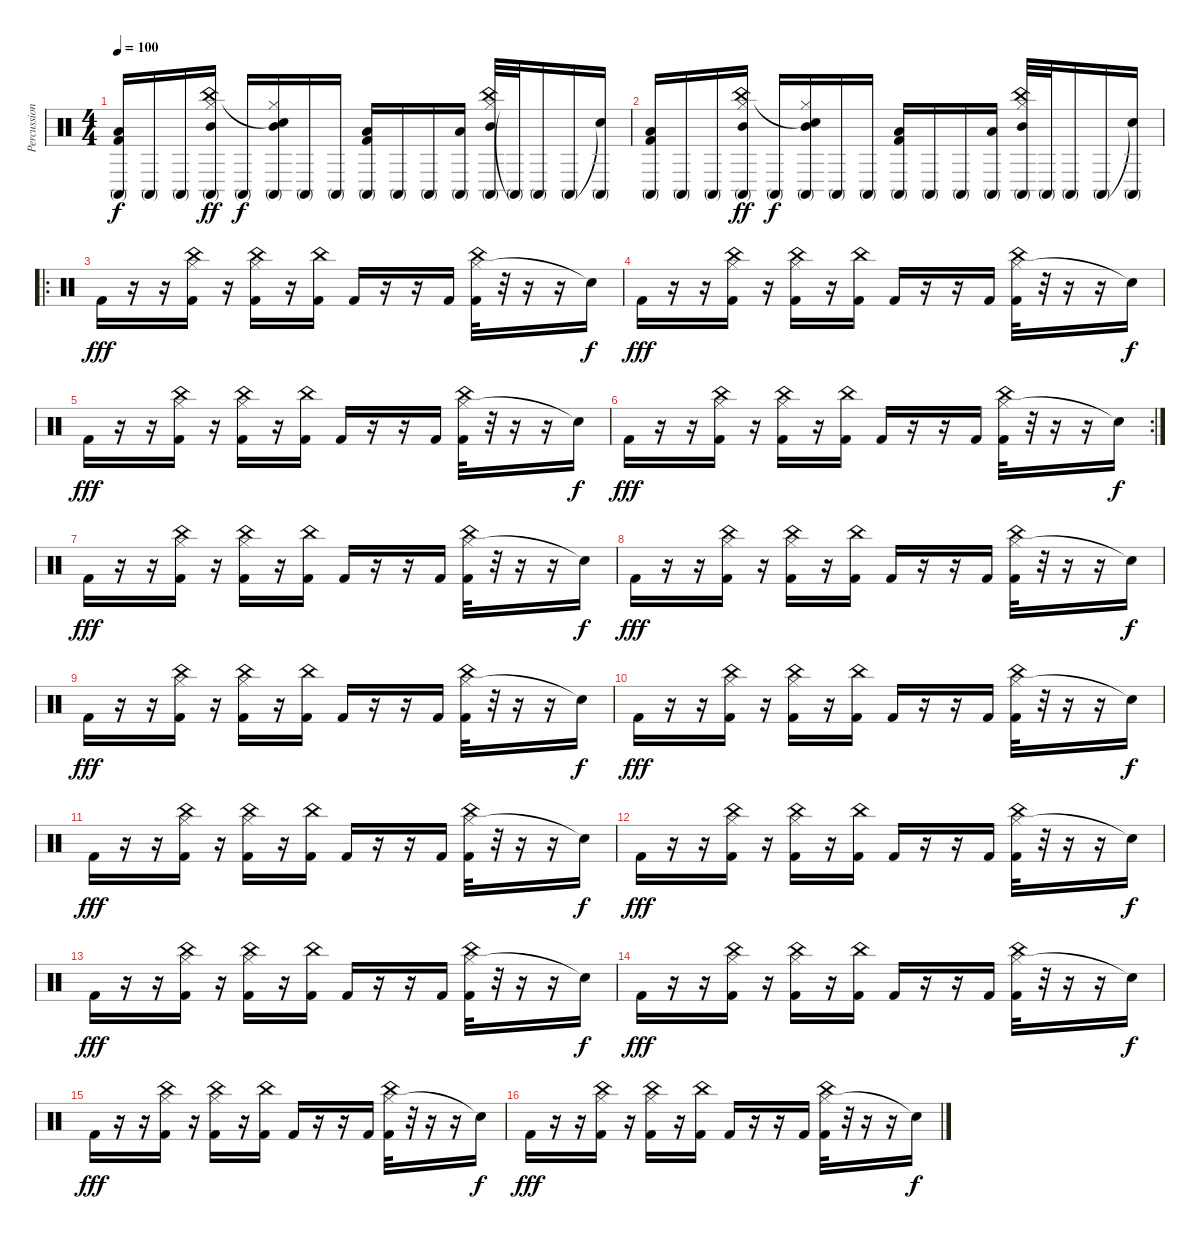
\track ("Percussion" "Percussion") {instrument percussion}
\staff {score}
\articulation defaults
\ts (4 4)
\tempo 100
\clef neutral
\ks c
("Kick (hit) 2" "Low Tom (hit)" "Conga high (mute)").16{dy f} "Conga high (mute)".16 "Conga high (mute)".16 ("Hi-Hat (closed)" "China (hit)" "Mid Tom (hit)" "Conga high (mute)").16{dy ff} "Conga high (mute)".16{dy f} ("Hi-Hat (closed)" "Snare (hit)"{t} "Mid Tom (hit)" "Conga high (mute)").16 "Conga high (mute)".16 "Conga high (mute)".16 ("Kick (hit) 2" "Low Tom (hit)" "Conga high (mute)").16 "Conga high (mute)".16 "Conga high (mute)".16 ("Low Tom (hit)" "Conga high (mute)").16 ("Hi-Hat (closed)" "China (hit)" "Mid Tom (hit)" "Conga high (mute)").32 "Conga high (mute)"{t}.32 "Conga high (mute)".16 "Conga high (mute)".16 ("Snare (hit)"{t} "Conga high (mute)").16 |
("Kick (hit) 2" "Low Tom (hit)" "Conga high (mute)").16 "Conga high (mute)".16 "Conga high (mute)".16 ("Hi-Hat (closed)" "China (hit)" "Mid Tom (hit)" "Conga high (mute)").16{dy ff} "Conga high (mute)".16{dy f} ("Hi-Hat (closed)" "Snare (hit)"{t} "Mid Tom (hit)" "Conga high (mute)").16 "Conga high (mute)".16 "Conga high (mute)".16 ("Kick (hit) 2" "Low Tom (hit)" "Conga high (mute)").16 "Conga high (mute)".16 "Conga high (mute)".16 ("Low Tom (hit)" "Conga high (mute)").16 ("Hi-Hat (closed)" "China (hit)" "Mid Tom (hit)" "Conga high (mute)").32 "Conga high (mute)".32 "Conga high (mute)".16 "Conga high (mute)".16 ("Snare (hit)"{t} "Conga high (mute)").16 |
\ro "Kick (hit) 2".16{dy fff volume 13}
r.16 r.16 ("Hi-Hat (closed)" "China (hit)" "Kick (hit) 2").16 r.16 ("Hi-Hat (closed)" "China (hit)" "Kick (hit) 2").16 r.16 ("China (hit)" "Kick (hit) 2").16 "Kick (hit) 2".16 r.16 r.16 "Kick (hit) 2".16 ("Hi-Hat (closed)" "China (hit)" "Kick (hit) 2").32 r.32 r.16 r.16 "Snare (hit)"{t}.16{dy f} |
"Kick (hit) 2".16{dy fff} r.16 r.16 ("Hi-Hat (closed)" "China (hit)" "Kick (hit) 2").16 r.16 ("Hi-Hat (closed)" "China (hit)" "Kick (hit) 2").16 r.16 ("China (hit)" "Kick (hit) 2").16 "Kick (hit) 2".16 r.16 r.16 "Kick (hit) 2".16 ("Hi-Hat (closed)" "China (hit)" "Kick (hit) 2").32 r.32 r.16 r.16 "Snare (hit)"{t}.16{dy f} |
"Kick (hit) 2".16{dy fff} r.16 r.16 ("Hi-Hat (closed)" "China (hit)" "Kick (hit) 2").16 r.16 ("Hi-Hat (closed)" "China (hit)" "Kick (hit) 2").16 r.16 ("China (hit)" "Kick (hit) 2").16 "Kick (hit) 2".16 r.16 r.16 "Kick (hit) 2".16 ("Hi-Hat (closed)" "China (hit)" "Kick (hit) 2").32 r.32 r.16 r.16 "Snare (hit)"{t}.16{dy f} |
\rc 2 "Kick (hit) 2".16{dy fff}
r.16 r.16 ("Hi-Hat (closed)" "China (hit)" "Kick (hit) 2").16 r.16 ("Hi-Hat (closed)" "China (hit)" "Kick (hit) 2").16 r.16 ("China (hit)" "Kick (hit) 2").16 "Kick (hit) 2".16 r.16 r.16 "Kick (hit) 2".16 ("Hi-Hat (closed)" "China (hit)" "Kick (hit) 2").32 r.32 r.16 r.16 "Snare (hit)"{t}.16{dy f} |
"Kick (hit) 2".16{dy fff volume 13} r.16 r.16 ("Hi-Hat (closed)" "China (hit)" "Kick (hit) 2").16 r.16 ("Hi-Hat (closed)" "China (hit)" "Kick (hit) 2").16 r.16 ("China (hit)" "Kick (hit) 2").16 "Kick (hit) 2".16 r.16 r.16 "Kick (hit) 2".16 ("Hi-Hat (closed)" "China (hit)" "Kick (hit) 2").32 r.32 r.16 r.16 "Snare (hit)"{t}.16{dy f} |
"Kick (hit) 2".16{dy fff} r.16 r.16 ("Hi-Hat (closed)" "China (hit)" "Kick (hit) 2").16 r.16 ("Hi-Hat (closed)" "China (hit)" "Kick (hit) 2").16 r.16 ("China (hit)" "Kick (hit) 2").16 "Kick (hit) 2".16 r.16 r.16 "Kick (hit) 2".16 ("Hi-Hat (closed)" "China (hit)" "Kick (hit) 2").32 r.32 r.16 r.16 "Snare (hit)"{t}.16{dy f} |
"Kick (hit) 2".16{dy fff} r.16 r.16 ("Hi-Hat (closed)" "China (hit)" "Kick (hit) 2").16 r.16 ("Hi-Hat (closed)" "China (hit)" "Kick (hit) 2").16 r.16 ("China (hit)" "Kick (hit) 2").16 "Kick (hit) 2".16 r.16 r.16 "Kick (hit) 2".16 ("Hi-Hat (closed)" "China (hit)" "Kick (hit) 2").32 r.32 r.16 r.16 "Snare (hit)"{t}.16{dy f} |
"Kick (hit) 2".16{dy fff} r.16 r.16 ("Hi-Hat (closed)" "China (hit)" "Kick (hit) 2").16 r.16 ("Hi-Hat (closed)" "China (hit)" "Kick (hit) 2").16 r.16 ("China (hit)" "Kick (hit) 2").16 "Kick (hit) 2".16 r.16 r.16 "Kick (hit) 2".16 ("Hi-Hat (closed)" "China (hit)" "Kick (hit) 2").32 r.32 r.16 r.16 "Snare (hit)"{t}.16{dy f} |
"Kick (hit) 2".16{dy fff volume 13} r.16 r.16 ("Hi-Hat (closed)" "China (hit)" "Kick (hit) 2").16 r.16 ("Hi-Hat (closed)" "China (hit)" "Kick (hit) 2").16 r.16 ("China (hit)" "Kick (hit) 2").16 "Kick (hit) 2".16 r.16 r.16 "Kick (hit) 2".16 ("Hi-Hat (closed)" "China (hit)" "Kick (hit) 2").32 r.32 r.16 r.16 "Snare (hit)"{t}.16{dy f} |
"Kick (hit) 2".16{dy fff} r.16 r.16 ("Hi-Hat (closed)" "China (hit)" "Kick (hit) 2").16 r.16 ("Hi-Hat (closed)" "China (hit)" "Kick (hit) 2").16 r.16 ("China (hit)" "Kick (hit) 2").16 "Kick (hit) 2".16 r.16 r.16 "Kick (hit) 2".16 ("Hi-Hat (closed)" "China (hit)" "Kick (hit) 2").32 r.32 r.16 r.16 "Snare (hit)"{t}.16{dy f} |
"Kick (hit) 2".16{dy fff} r.16 r.16 ("Hi-Hat (closed)" "China (hit)" "Kick (hit) 2").16 r.16 ("Hi-Hat (closed)" "China (hit)" "Kick (hit) 2").16 r.16 ("China (hit)" "Kick (hit) 2").16 "Kick (hit) 2".16 r.16 r.16 "Kick (hit) 2".16 ("Hi-Hat (closed)" "China (hit)" "Kick (hit) 2").32 r.32 r.16 r.16 "Snare (hit)"{t}.16{dy f} |
"Kick (hit) 2".16{dy fff} r.16 r.16 ("Hi-Hat (closed)" "China (hit)" "Kick (hit) 2").16 r.16 ("Hi-Hat (closed)" "China (hit)" "Kick (hit) 2").16 r.16 ("China (hit)" "Kick (hit) 2").16 "Kick (hit) 2".16 r.16 r.16 "Kick (hit) 2".16 ("Hi-Hat (closed)" "China (hit)" "Kick (hit) 2").32 r.32 r.16 r.16 "Snare (hit)"{t}.16{dy f} |
"Kick (hit) 2".16{dy fff volume 13} r.16 r.16 ("Hi-Hat (closed)" "China (hit)" "Kick (hit) 2").16 r.16 ("Hi-Hat (closed)" "China (hit)" "Kick (hit) 2").16 r.16 ("China (hit)" "Kick (hit) 2").16 "Kick (hit) 2".16 r.16 r.16 "Kick (hit) 2".16 ("Hi-Hat (closed)" "China (hit)" "Kick (hit) 2").32 r.32 r.16 r.16 "Snare (hit)"{t}.16{dy f} |
"Kick (hit) 2".16{dy fff} r.16 r.16 ("Hi-Hat (closed)" "China (hit)" "Kick (hit) 2").16 r.16 ("Hi-Hat (closed)" "China (hit)" "Kick (hit) 2").16 r.16 ("China (hit)" "Kick (hit) 2").16 "Kick (hit) 2".16 r.16 r.16 "Kick (hit) 2".16 ("Hi-Hat (closed)" "China (hit)" "Kick (hit) 2").32 r.32 r.16 r.16 "Snare (hit)"{t}.16{dy f}
